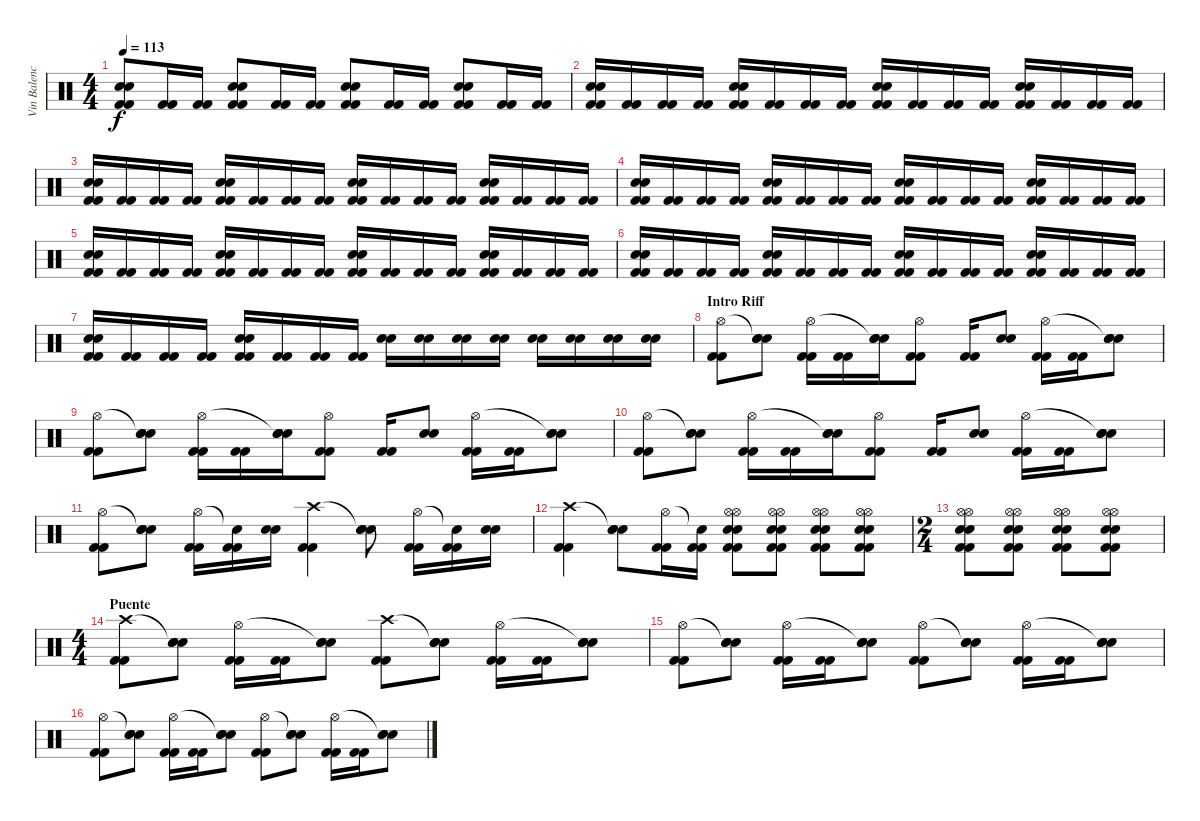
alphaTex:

\track ("Vin Balencia (bateria)" "Vin Balenc") {instrument percussion}
\staff {score}
\articulation defaults
\ts (4 4)
\tempo 113
\clef neutral
\ks c
("Electric Snare (hit)" "Electric Snare (hit)" "Kick (hit) 2" "Kick (hit) 2").8{dy f} ("Kick (hit) 2" "Kick (hit) 2").16 ("Kick (hit) 2" "Kick (hit) 2").16 ("Electric Snare (hit)" "Electric Snare (hit)" "Kick (hit) 2" "Kick (hit) 2").8 ("Kick (hit) 2" "Kick (hit) 2").16 ("Kick (hit) 2" "Kick (hit) 2").16 ("Electric Snare (hit)" "Electric Snare (hit)" "Kick (hit) 2" "Kick (hit) 2").8 ("Kick (hit) 2" "Kick (hit) 2").16 ("Kick (hit) 2" "Kick (hit) 2").16 ("Electric Snare (hit)" "Electric Snare (hit)" "Kick (hit) 2" "Kick (hit) 2").8 ("Kick (hit) 2" "Kick (hit) 2").16 ("Kick (hit) 2" "Kick (hit) 2").16 |
("Electric Snare (hit)" "Electric Snare (hit)" "Kick (hit) 2" "Kick (hit) 2").16 ("Kick (hit) 2" "Kick (hit) 2").16 ("Kick (hit) 2" "Kick (hit) 2").16 ("Kick (hit) 2" "Kick (hit) 2").16 ("Electric Snare (hit)" "Electric Snare (hit)" "Kick (hit) 2" "Kick (hit) 2").16 ("Kick (hit) 2" "Kick (hit) 2").16 ("Kick (hit) 2" "Kick (hit) 2").16 ("Kick (hit) 2" "Kick (hit) 2").16 ("Electric Snare (hit)" "Electric Snare (hit)" "Kick (hit) 2" "Kick (hit) 2").16 ("Kick (hit) 2" "Kick (hit) 2").16 ("Kick (hit) 2" "Kick (hit) 2").16 ("Kick (hit) 2" "Kick (hit) 2").16 ("Electric Snare (hit)" "Electric Snare (hit)" "Kick (hit) 2" "Kick (hit) 2").16 ("Kick (hit) 2" "Kick (hit) 2").16 ("Kick (hit) 2" "Kick (hit) 2").16 ("Kick (hit) 2" "Kick (hit) 2").16 |
("Electric Snare (hit)" "Electric Snare (hit)" "Kick (hit) 2" "Kick (hit) 2").16 ("Kick (hit) 2" "Kick (hit) 2").16 ("Kick (hit) 2" "Kick (hit) 2").16 ("Kick (hit) 2" "Kick (hit) 2").16 ("Electric Snare (hit)" "Electric Snare (hit)" "Kick (hit) 2" "Kick (hit) 2").16 ("Kick (hit) 2" "Kick (hit) 2").16 ("Kick (hit) 2" "Kick (hit) 2").16 ("Kick (hit) 2" "Kick (hit) 2").16 ("Electric Snare (hit)" "Electric Snare (hit)" "Kick (hit) 2" "Kick (hit) 2").16 ("Kick (hit) 2" "Kick (hit) 2").16 ("Kick (hit) 2" "Kick (hit) 2").16 ("Kick (hit) 2" "Kick (hit) 2").16 ("Electric Snare (hit)" "Electric Snare (hit)" "Kick (hit) 2" "Kick (hit) 2").16 ("Kick (hit) 2" "Kick (hit) 2").16 ("Kick (hit) 2" "Kick (hit) 2").16 ("Kick (hit) 2" "Kick (hit) 2").16 |
("Electric Snare (hit)" "Electric Snare (hit)" "Kick (hit) 2" "Kick (hit) 2").16 ("Kick (hit) 2" "Kick (hit) 2").16 ("Kick (hit) 2" "Kick (hit) 2").16 ("Kick (hit) 2" "Kick (hit) 2").16 ("Electric Snare (hit)" "Electric Snare (hit)" "Kick (hit) 2" "Kick (hit) 2").16 ("Kick (hit) 2" "Kick (hit) 2").16 ("Kick (hit) 2" "Kick (hit) 2").16 ("Kick (hit) 2" "Kick (hit) 2").16 ("Electric Snare (hit)" "Electric Snare (hit)" "Kick (hit) 2" "Kick (hit) 2").16 ("Kick (hit) 2" "Kick (hit) 2").16 ("Kick (hit) 2" "Kick (hit) 2").16 ("Kick (hit) 2" "Kick (hit) 2").16 ("Electric Snare (hit)" "Electric Snare (hit)" "Kick (hit) 2" "Kick (hit) 2").16 ("Kick (hit) 2" "Kick (hit) 2").16 ("Kick (hit) 2" "Kick (hit) 2").16 ("Kick (hit) 2" "Kick (hit) 2").16 |
("Electric Snare (hit)" "Electric Snare (hit)" "Kick (hit) 2" "Kick (hit) 2").16 ("Kick (hit) 2" "Kick (hit) 2").16 ("Kick (hit) 2" "Kick (hit) 2").16 ("Kick (hit) 2" "Kick (hit) 2").16 ("Electric Snare (hit)" "Electric Snare (hit)" "Kick (hit) 2" "Kick (hit) 2").16 ("Kick (hit) 2" "Kick (hit) 2").16 ("Kick (hit) 2" "Kick (hit) 2").16 ("Kick (hit) 2" "Kick (hit) 2").16 ("Electric Snare (hit)" "Electric Snare (hit)" "Kick (hit) 2" "Kick (hit) 2").16 ("Kick (hit) 2" "Kick (hit) 2").16 ("Kick (hit) 2" "Kick (hit) 2").16 ("Kick (hit) 2" "Kick (hit) 2").16 ("Electric Snare (hit)" "Electric Snare (hit)" "Kick (hit) 2" "Kick (hit) 2").16 ("Kick (hit) 2" "Kick (hit) 2").16 ("Kick (hit) 2" "Kick (hit) 2").16 ("Kick (hit) 2" "Kick (hit) 2").16 |
("Electric Snare (hit)" "Electric Snare (hit)" "Kick (hit) 2" "Kick (hit) 2").16 ("Kick (hit) 2" "Kick (hit) 2").16 ("Kick (hit) 2" "Kick (hit) 2").16 ("Kick (hit) 2" "Kick (hit) 2").16 ("Electric Snare (hit)" "Electric Snare (hit)" "Kick (hit) 2" "Kick (hit) 2").16 ("Kick (hit) 2" "Kick (hit) 2").16 ("Kick (hit) 2" "Kick (hit) 2").16 ("Kick (hit) 2" "Kick (hit) 2").16 ("Electric Snare (hit)" "Electric Snare (hit)" "Kick (hit) 2" "Kick (hit) 2").16 ("Kick (hit) 2" "Kick (hit) 2").16 ("Kick (hit) 2" "Kick (hit) 2").16 ("Kick (hit) 2" "Kick (hit) 2").16 ("Electric Snare (hit)" "Electric Snare (hit)" "Kick (hit) 2" "Kick (hit) 2").16 ("Kick (hit) 2" "Kick (hit) 2").16 ("Kick (hit) 2" "Kick (hit) 2").16 ("Kick (hit) 2" "Kick (hit) 2").16 |
("Electric Snare (hit)" "Electric Snare (hit)" "Kick (hit) 2" "Kick (hit) 2").16 ("Kick (hit) 2" "Kick (hit) 2").16 ("Kick (hit) 2" "Kick (hit) 2").16 ("Kick (hit) 2" "Kick (hit) 2").16 ("Electric Snare (hit)" "Electric Snare (hit)" "Kick (hit) 2" "Kick (hit) 2").16 ("Kick (hit) 2" "Kick (hit) 2").16 ("Kick (hit) 2" "Kick (hit) 2").16 ("Kick (hit) 2" "Kick (hit) 2").16 ("Snare (hit) 2" "Snare (hit) 2").16 ("Snare (hit) 2" "Snare (hit) 2").16 ("Snare (hit) 2" "Snare (hit) 2").16 ("Snare (hit) 2" "Snare (hit) 2").16 ("Snare (hit) 2" "Snare (hit) 2").16 ("Snare (hit) 2" "Snare (hit) 2").16 ("Snare (hit) 2" "Snare (hit) 2").16 ("Snare (hit) 2" "Snare (hit) 2").16 |
\section ("" "Intro Riff")
("Kick (hit) 2" "Kick (hit) 2" "Hi-Hat (open)").8 ("Snare (hit) 2" "Snare (hit) 2" "Snare (hit)"{t}).8 ("Kick (hit) 2" "Kick (hit) 2" "Hi-Hat (open)").16 ("Kick (hit) 2" "Kick (hit) 2").16 ("Snare (hit) 2" "Snare (hit) 2" "Snare (hit)"{t}).16 ("Kick (hit) 2" "Kick (hit) 2" "Hi-Hat (open)").8 ("Kick (hit) 2" "Kick (hit) 2").16 ("Snare (hit) 2" "Snare (hit) 2").8 ("Kick (hit) 2" "Kick (hit) 2" "Hi-Hat (open)").16 ("Kick (hit) 2" "Kick (hit) 2").16 ("Snare (hit) 2" "Snare (hit) 2" "Snare (hit)"{t}).8 |
("Kick (hit) 2" "Kick (hit) 2" "Hi-Hat (open)").8 ("Snare (hit) 2" "Snare (hit) 2" "Snare (hit)"{t}).8 ("Kick (hit) 2" "Kick (hit) 2" "Hi-Hat (open)").16 ("Kick (hit) 2" "Kick (hit) 2").16 ("Snare (hit) 2" "Snare (hit) 2" "Snare (hit)"{t}).16 ("Kick (hit) 2" "Kick (hit) 2" "Hi-Hat (open)").8 ("Kick (hit) 2" "Kick (hit) 2").16 ("Snare (hit) 2" "Snare (hit) 2").8 ("Kick (hit) 2" "Kick (hit) 2" "Hi-Hat (open)").16 ("Kick (hit) 2" "Kick (hit) 2").16 ("Snare (hit) 2" "Snare (hit) 2" "Snare (hit)"{t}).8 |
("Kick (hit) 2" "Kick (hit) 2" "Hi-Hat (open)").8 ("Snare (hit) 2" "Snare (hit) 2" "Snare (hit)"{t}).8 ("Kick (hit) 2" "Kick (hit) 2" "Hi-Hat (open)").16 ("Kick (hit) 2" "Kick (hit) 2").16 ("Snare (hit) 2" "Snare (hit) 2" "Snare (hit)"{t}).16 ("Kick (hit) 2" "Kick (hit) 2" "Hi-Hat (open)").8 ("Kick (hit) 2" "Kick (hit) 2").16 ("Snare (hit) 2" "Snare (hit) 2").8 ("Kick (hit) 2" "Kick (hit) 2" "Hi-Hat (open)").16 ("Kick (hit) 2" "Kick (hit) 2").16 ("Snare (hit) 2" "Snare (hit) 2" "Snare (hit)"{t}).8 |
("Kick (hit) 2" "Kick (hit) 2" "Hi-Hat (open)").8 ("Snare (hit) 2" "Snare (hit) 2" "Snare (hit)"{t}).8 ("Kick (hit) 2" "Kick (hit) 2" "Hi-Hat (open)").16 ("Kick (hit) 2" "Kick (hit) 2" "Snare (hit)"{t}).16 ("Snare (hit) 2" "Snare (hit) 2").16 ("Kick (hit) 2" "Kick (hit) 2" "Crash high (hit)").4 ("Snare (hit) 2" "Snare (hit) 2" "Snare (hit)"{t}).8 ("Kick (hit) 2" "Kick (hit) 2" "Hi-Hat (open)").16 ("Kick (hit) 2" "Kick (hit) 2" "Snare (hit)"{t}).16 ("Snare (hit) 2" "Snare (hit) 2").16 |
("Kick (hit) 2" "Kick (hit) 2" "Crash high (hit)").4 ("Snare (hit) 2" "Snare (hit) 2" "Snare (hit)"{t}).8 ("Kick (hit) 2" "Kick (hit) 2" "Hi-Hat (open)").16 ("Kick (hit) 2" "Kick (hit) 2" "Snare (hit)"{t}).16 ("Kick (hit) 2" "Kick (hit) 2" "Snare (hit) 2" "Snare (hit) 2" "Hi-Hat (open)" "Hi-Hat (open)").8 ("Kick (hit) 2" "Kick (hit) 2" "Snare (hit) 2" "Snare (hit) 2" "Hi-Hat (open)" "Hi-Hat (open)").8 ("Kick (hit) 2" "Kick (hit) 2" "Snare (hit) 2" "Snare (hit) 2" "Hi-Hat (open)" "Hi-Hat (open)").8 ("Kick (hit) 2" "Kick (hit) 2" "Snare (hit) 2" "Snare (hit) 2" "Hi-Hat (open)" "Hi-Hat (open)").8 |
\ts (2 4)
("Kick (hit) 2" "Kick (hit) 2" "Snare (hit) 2" "Snare (hit) 2" "Hi-Hat (open)" "Hi-Hat (open)").8 ("Kick (hit) 2" "Kick (hit) 2" "Snare (hit) 2" "Snare (hit) 2" "Hi-Hat (open)" "Hi-Hat (open)").8 ("Kick (hit) 2" "Kick (hit) 2" "Snare (hit) 2" "Snare (hit) 2" "Hi-Hat (open)" "Hi-Hat (open)").8 ("Kick (hit) 2" "Kick (hit) 2" "Snare (hit) 2" "Snare (hit) 2" "Hi-Hat (open)" "Hi-Hat (open)").8 |
\ts (4 4)
\section ("" "Puente")
("Kick (hit) 2" "Kick (hit) 2" "Crash high (hit)").8 ("Snare (hit) 2" "Snare (hit) 2" "Snare (hit)"{t}).8 ("Kick (hit) 2" "Kick (hit) 2" "Hi-Hat (open)").16 ("Kick (hit) 2" "Kick (hit) 2").16 ("Snare (hit) 2" "Snare (hit) 2" "Snare (hit)"{t}).8 ("Kick (hit) 2" "Kick (hit) 2" "Crash high (hit)").8 ("Snare (hit) 2" "Snare (hit) 2" "Snare (hit)"{t}).8 ("Kick (hit) 2" "Kick (hit) 2" "Hi-Hat (open)").16 ("Kick (hit) 2" "Kick (hit) 2").16 ("Snare (hit) 2" "Snare (hit) 2" "Snare (hit)"{t}).8 |
("Kick (hit) 2" "Kick (hit) 2" "Hi-Hat (open)").8 ("Snare (hit) 2" "Snare (hit) 2" "Snare (hit)"{t}).8 ("Kick (hit) 2" "Kick (hit) 2" "Hi-Hat (open)").16 ("Kick (hit) 2" "Kick (hit) 2").16 ("Snare (hit) 2" "Snare (hit) 2" "Snare (hit)"{t}).8 ("Kick (hit) 2" "Kick (hit) 2" "Hi-Hat (open)").8 ("Snare (hit) 2" "Snare (hit) 2" "Snare (hit)"{t}).8 ("Kick (hit) 2" "Kick (hit) 2" "Hi-Hat (open)").16 ("Kick (hit) 2" "Kick (hit) 2").16 ("Snare (hit) 2" "Snare (hit) 2" "Snare (hit)"{t}).8 |
("Kick (hit) 2" "Kick (hit) 2" "Hi-Hat (open)").8 ("Snare (hit) 2" "Snare (hit) 2" "Snare (hit)"{t}).8 ("Kick (hit) 2" "Kick (hit) 2" "Hi-Hat (open)").16 ("Kick (hit) 2" "Kick (hit) 2").16 ("Snare (hit) 2" "Snare (hit) 2" "Snare (hit)"{t}).8 ("Kick (hit) 2" "Kick (hit) 2" "Hi-Hat (open)").8 ("Snare (hit) 2" "Snare (hit) 2" "Snare (hit)"{t}).8 ("Kick (hit) 2" "Kick (hit) 2" "Hi-Hat (open)").16 ("Kick (hit) 2" "Kick (hit) 2").16 ("Snare (hit) 2" "Snare (hit) 2" "Snare (hit)"{t}).8
